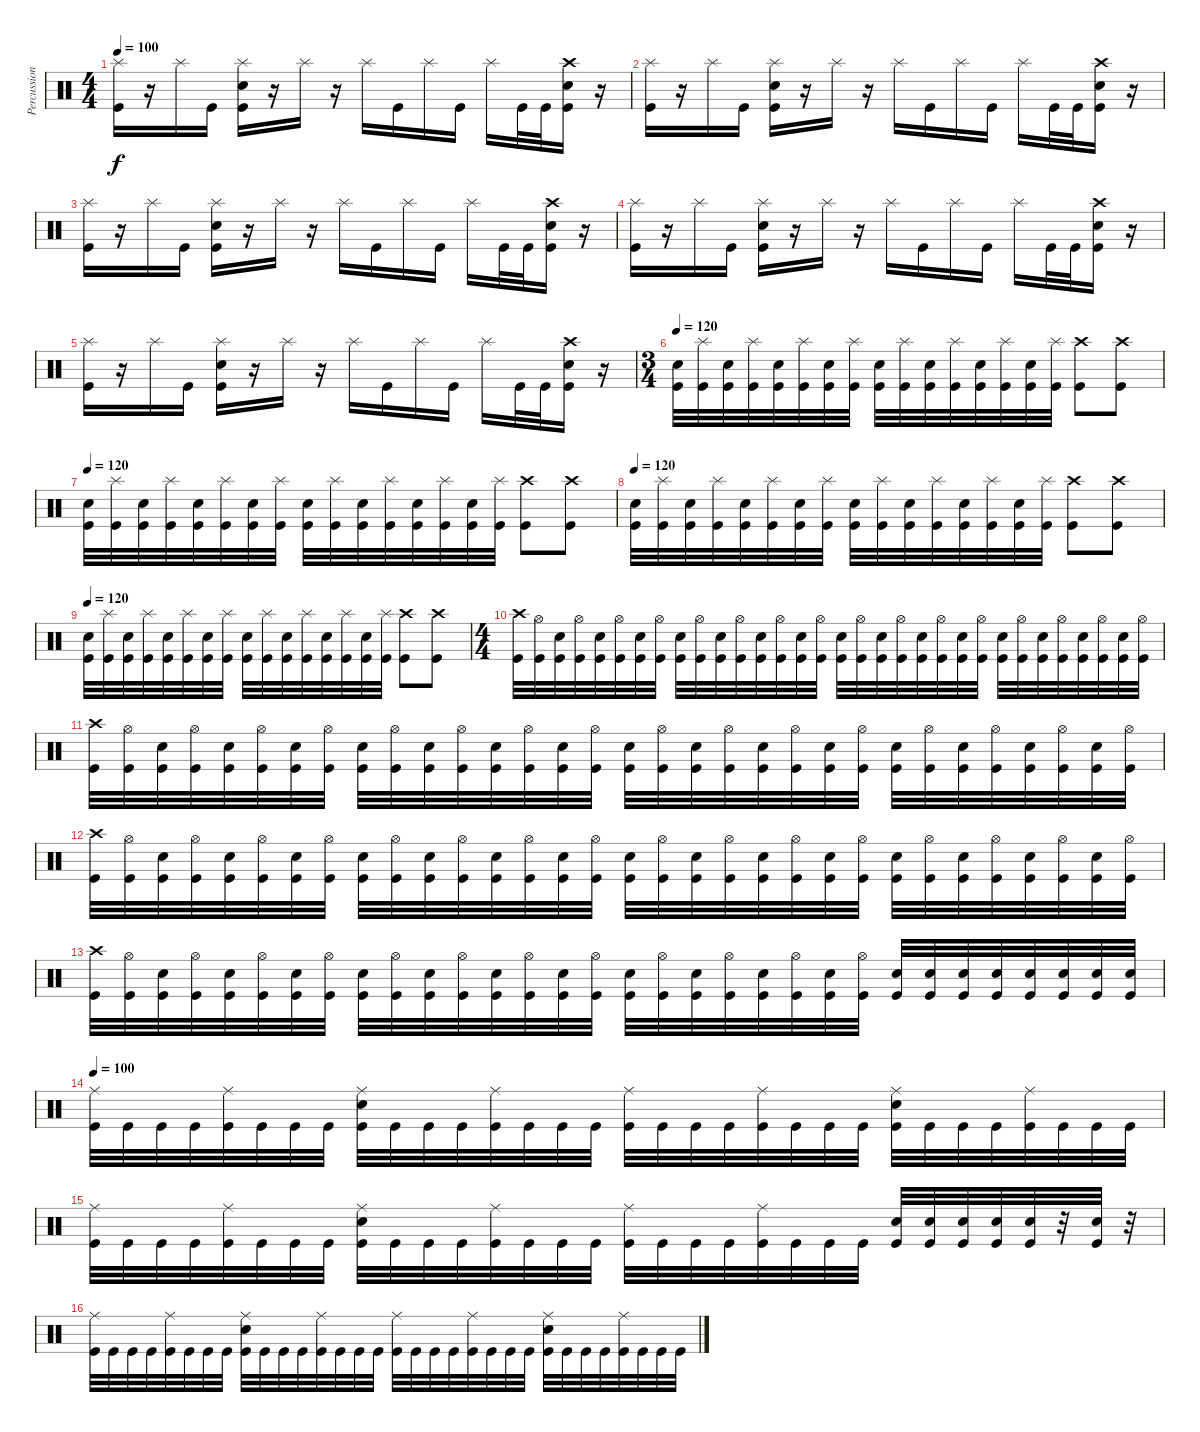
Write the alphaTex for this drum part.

\track ("Percussion" "Percussion") {instrument percussion}
\staff {score}
\articulation defaults
\ts (4 4)
\tempo 100
\clef neutral
\ks c
("Splash (hit)" "Kick (hit)").16{dy f} r.16 "Splash (hit)".16 "Kick (hit)".16 ("Splash (hit)" "Electric Snare (hit)" "Kick (hit)").16 r.16 "Splash (hit)".16 r.16 "Splash (hit)".16 "Kick (hit)".16 "Splash (hit)".16 "Kick (hit)".16 "Splash (hit)".16 "Kick (hit)".32 "Kick (hit)".32 ("Crash high (hit)" "Electric Snare (hit)" "Kick (hit)").16 r.16 |
("Splash (hit)" "Kick (hit)").16 r.16 "Splash (hit)".16 "Kick (hit)".16 ("Splash (hit)" "Electric Snare (hit)" "Kick (hit)").16 r.16 "Splash (hit)".16 r.16 "Splash (hit)".16 "Kick (hit)".16 "Splash (hit)".16 "Kick (hit)".16 "Splash (hit)".16 "Kick (hit)".32 "Kick (hit)".32 ("Crash high (hit)" "Electric Snare (hit)" "Kick (hit)").16 r.16 |
("Splash (hit)" "Kick (hit)").16{volume 16} r.16 "Splash (hit)".16 "Kick (hit)".16 ("Splash (hit)" "Electric Snare (hit)" "Kick (hit)").16 r.16 "Splash (hit)".16 r.16 "Splash (hit)".16 "Kick (hit)".16 "Splash (hit)".16 "Kick (hit)".16 "Splash (hit)".16 "Kick (hit)".32 "Kick (hit)".32 ("Crash high (hit)" "Electric Snare (hit)" "Kick (hit)").16 r.16 |
("Splash (hit)" "Kick (hit)").16{volume 16} r.16 "Splash (hit)".16 "Kick (hit)".16 ("Splash (hit)" "Electric Snare (hit)" "Kick (hit)").16 r.16 "Splash (hit)".16 r.16 "Splash (hit)".16 "Kick (hit)".16 "Splash (hit)".16 "Kick (hit)".16 "Splash (hit)".16 "Kick (hit)".32 "Kick (hit)".32 ("Crash high (hit)" "Electric Snare (hit)" "Kick (hit)").16 r.16 |
("Splash (hit)" "Kick (hit)").16{volume 16} r.16 "Splash (hit)".16 "Kick (hit)".16 ("Splash (hit)" "Electric Snare (hit)" "Kick (hit)").16 r.16 "Splash (hit)".16 r.16 "Splash (hit)".16 "Kick (hit)".16 "Splash (hit)".16 "Kick (hit)".16 "Splash (hit)".16 "Kick (hit)".32 "Kick (hit)".32 ("Crash high (hit)" "Electric Snare (hit)" "Kick (hit)").16 r.16 |
\ts (3 4)
\tempo 120
("Electric Snare (hit)" "Kick (hit)").32 ("Splash (hit)" "Kick (hit)").32 ("Electric Snare (hit)" "Kick (hit)").32 ("Splash (hit)" "Kick (hit)").32 ("Electric Snare (hit)" "Kick (hit)").32 ("Splash (hit)" "Kick (hit)").32 ("Electric Snare (hit)" "Kick (hit)").32 ("Splash (hit)" "Kick (hit)").32 ("Electric Snare (hit)" "Kick (hit)").32 ("Splash (hit)" "Kick (hit)").32 ("Electric Snare (hit)" "Kick (hit)").32 ("Splash (hit)" "Kick (hit)").32 ("Electric Snare (hit)" "Kick (hit)").32 ("Splash (hit)" "Kick (hit)").32 ("Electric Snare (hit)" "Kick (hit)").32 ("Splash (hit)" "Kick (hit)").32 ("Crash high (hit)" "Kick (hit)").8 ("Crash high (hit)" "Kick (hit)").8 |
\tempo 120
("Electric Snare (hit)" "Kick (hit)").32 ("Splash (hit)" "Kick (hit)").32 ("Electric Snare (hit)" "Kick (hit)").32 ("Splash (hit)" "Kick (hit)").32 ("Electric Snare (hit)" "Kick (hit)").32 ("Splash (hit)" "Kick (hit)").32 ("Electric Snare (hit)" "Kick (hit)").32 ("Splash (hit)" "Kick (hit)").32 ("Electric Snare (hit)" "Kick (hit)").32 ("Splash (hit)" "Kick (hit)").32 ("Electric Snare (hit)" "Kick (hit)").32 ("Splash (hit)" "Kick (hit)").32 ("Electric Snare (hit)" "Kick (hit)").32 ("Splash (hit)" "Kick (hit)").32 ("Electric Snare (hit)" "Kick (hit)").32 ("Splash (hit)" "Kick (hit)").32 ("Crash high (hit)" "Kick (hit)").8 ("Crash high (hit)" "Kick (hit)").8 |
\tempo 120
("Electric Snare (hit)" "Kick (hit)").32 ("Splash (hit)" "Kick (hit)").32 ("Electric Snare (hit)" "Kick (hit)").32 ("Splash (hit)" "Kick (hit)").32 ("Electric Snare (hit)" "Kick (hit)").32 ("Splash (hit)" "Kick (hit)").32 ("Electric Snare (hit)" "Kick (hit)").32 ("Splash (hit)" "Kick (hit)").32 ("Electric Snare (hit)" "Kick (hit)").32 ("Splash (hit)" "Kick (hit)").32 ("Electric Snare (hit)" "Kick (hit)").32 ("Splash (hit)" "Kick (hit)").32 ("Electric Snare (hit)" "Kick (hit)").32 ("Splash (hit)" "Kick (hit)").32 ("Electric Snare (hit)" "Kick (hit)").32 ("Splash (hit)" "Kick (hit)").32 ("Crash high (hit)" "Kick (hit)").8 ("Crash high (hit)" "Kick (hit)").8 |
\tempo 120
("Electric Snare (hit)" "Kick (hit)").32 ("Splash (hit)" "Kick (hit)").32 ("Electric Snare (hit)" "Kick (hit)").32 ("Splash (hit)" "Kick (hit)").32 ("Electric Snare (hit)" "Kick (hit)").32 ("Splash (hit)" "Kick (hit)").32 ("Electric Snare (hit)" "Kick (hit)").32 ("Splash (hit)" "Kick (hit)").32 ("Electric Snare (hit)" "Kick (hit)").32 ("Splash (hit)" "Kick (hit)").32 ("Electric Snare (hit)" "Kick (hit)").32 ("Splash (hit)" "Kick (hit)").32 ("Electric Snare (hit)" "Kick (hit)").32 ("Splash (hit)" "Kick (hit)").32 ("Electric Snare (hit)" "Kick (hit)").32 ("Splash (hit)" "Kick (hit)").32 ("Crash high (hit)" "Kick (hit)").8 ("Crash high (hit)" "Kick (hit)").8 |
\ts (4 4)
("Crash high (hit)" "Kick (hit)").32 ("Hi-Hat (open)" "Kick (hit)").32 ("Electric Snare (hit)" "Kick (hit)").32 ("Hi-Hat (open)" "Kick (hit)").32 ("Electric Snare (hit)" "Kick (hit)").32 ("Hi-Hat (open)" "Kick (hit)").32 ("Electric Snare (hit)" "Kick (hit)").32 ("Hi-Hat (open)" "Kick (hit)").32 ("Electric Snare (hit)" "Kick (hit)").32 ("Hi-Hat (open)" "Kick (hit)").32 ("Electric Snare (hit)" "Kick (hit)").32 ("Hi-Hat (open)" "Kick (hit)").32 ("Electric Snare (hit)" "Kick (hit)").32 ("Hi-Hat (open)" "Kick (hit)").32 ("Electric Snare (hit)" "Kick (hit)").32 ("Hi-Hat (open)" "Kick (hit)").32 ("Electric Snare (hit)" "Kick (hit)").32 ("Hi-Hat (open)" "Kick (hit)").32 ("Electric Snare (hit)" "Kick (hit)").32 ("Hi-Hat (open)" "Kick (hit)").32 ("Electric Snare (hit)" "Kick (hit)").32 ("Hi-Hat (open)" "Kick (hit)").32 ("Electric Snare (hit)" "Kick (hit)").32 ("Hi-Hat (open)" "Kick (hit)").32 ("Electric Snare (hit)" "Kick (hit)").32 ("Hi-Hat (open)" "Kick (hit)").32 ("Electric Snare (hit)" "Kick (hit)").32 ("Hi-Hat (open)" "Kick (hit)").32 ("Electric Snare (hit)" "Kick (hit)").32 ("Hi-Hat (open)" "Kick (hit)").32 ("Electric Snare (hit)" "Kick (hit)").32 ("Hi-Hat (open)" "Kick (hit)").32 |
("Crash high (hit)" "Kick (hit)").32 ("Hi-Hat (open)" "Kick (hit)").32 ("Electric Snare (hit)" "Kick (hit)").32 ("Hi-Hat (open)" "Kick (hit)").32 ("Electric Snare (hit)" "Kick (hit)").32 ("Hi-Hat (open)" "Kick (hit)").32 ("Electric Snare (hit)" "Kick (hit)").32 ("Hi-Hat (open)" "Kick (hit)").32 ("Electric Snare (hit)" "Kick (hit)").32 ("Hi-Hat (open)" "Kick (hit)").32 ("Electric Snare (hit)" "Kick (hit)").32 ("Hi-Hat (open)" "Kick (hit)").32 ("Electric Snare (hit)" "Kick (hit)").32 ("Hi-Hat (open)" "Kick (hit)").32 ("Electric Snare (hit)" "Kick (hit)").32 ("Hi-Hat (open)" "Kick (hit)").32 ("Electric Snare (hit)" "Kick (hit)").32 ("Hi-Hat (open)" "Kick (hit)").32 ("Electric Snare (hit)" "Kick (hit)").32 ("Hi-Hat (open)" "Kick (hit)").32 ("Electric Snare (hit)" "Kick (hit)").32 ("Hi-Hat (open)" "Kick (hit)").32 ("Electric Snare (hit)" "Kick (hit)").32 ("Hi-Hat (open)" "Kick (hit)").32 ("Electric Snare (hit)" "Kick (hit)").32 ("Hi-Hat (open)" "Kick (hit)").32 ("Electric Snare (hit)" "Kick (hit)").32 ("Hi-Hat (open)" "Kick (hit)").32 ("Electric Snare (hit)" "Kick (hit)").32 ("Hi-Hat (open)" "Kick (hit)").32 ("Electric Snare (hit)" "Kick (hit)").32 ("Hi-Hat (open)" "Kick (hit)").32 |
("Crash high (hit)" "Kick (hit)").32 ("Hi-Hat (open)" "Kick (hit)").32 ("Electric Snare (hit)" "Kick (hit)").32 ("Hi-Hat (open)" "Kick (hit)").32 ("Electric Snare (hit)" "Kick (hit)").32 ("Hi-Hat (open)" "Kick (hit)").32 ("Electric Snare (hit)" "Kick (hit)").32 ("Hi-Hat (open)" "Kick (hit)").32 ("Electric Snare (hit)" "Kick (hit)").32 ("Hi-Hat (open)" "Kick (hit)").32 ("Electric Snare (hit)" "Kick (hit)").32 ("Hi-Hat (open)" "Kick (hit)").32 ("Electric Snare (hit)" "Kick (hit)").32 ("Hi-Hat (open)" "Kick (hit)").32 ("Electric Snare (hit)" "Kick (hit)").32 ("Hi-Hat (open)" "Kick (hit)").32 ("Electric Snare (hit)" "Kick (hit)").32 ("Hi-Hat (open)" "Kick (hit)").32 ("Electric Snare (hit)" "Kick (hit)").32 ("Hi-Hat (open)" "Kick (hit)").32 ("Electric Snare (hit)" "Kick (hit)").32 ("Hi-Hat (open)" "Kick (hit)").32 ("Electric Snare (hit)" "Kick (hit)").32 ("Hi-Hat (open)" "Kick (hit)").32 ("Electric Snare (hit)" "Kick (hit)").32 ("Hi-Hat (open)" "Kick (hit)").32 ("Electric Snare (hit)" "Kick (hit)").32 ("Hi-Hat (open)" "Kick (hit)").32 ("Electric Snare (hit)" "Kick (hit)").32 ("Hi-Hat (open)" "Kick (hit)").32 ("Electric Snare (hit)" "Kick (hit)").32 ("Hi-Hat (open)" "Kick (hit)").32 |
("Crash high (hit)" "Kick (hit)").32 ("Hi-Hat (open)" "Kick (hit)").32 ("Electric Snare (hit)" "Kick (hit)").32 ("Hi-Hat (open)" "Kick (hit)").32 ("Electric Snare (hit)" "Kick (hit)").32 ("Hi-Hat (open)" "Kick (hit)").32 ("Electric Snare (hit)" "Kick (hit)").32 ("Hi-Hat (open)" "Kick (hit)").32 ("Electric Snare (hit)" "Kick (hit)").32 ("Hi-Hat (open)" "Kick (hit)").32 ("Electric Snare (hit)" "Kick (hit)").32 ("Hi-Hat (open)" "Kick (hit)").32 ("Electric Snare (hit)" "Kick (hit)").32 ("Hi-Hat (open)" "Kick (hit)").32 ("Electric Snare (hit)" "Kick (hit)").32 ("Hi-Hat (open)" "Kick (hit)").32 ("Electric Snare (hit)" "Kick (hit)").32 ("Hi-Hat (open)" "Kick (hit)").32 ("Electric Snare (hit)" "Kick (hit)").32 ("Hi-Hat (open)" "Kick (hit)").32 ("Electric Snare (hit)" "Kick (hit)").32 ("Hi-Hat (open)" "Kick (hit)").32 ("Electric Snare (hit)" "Kick (hit)").32 ("Hi-Hat (open)" "Kick (hit)").32 ("Electric Snare (hit)" "Kick (hit)").32 ("Electric Snare (hit)" "Kick (hit)").32 ("Electric Snare (hit)" "Kick (hit)").32 ("Electric Snare (hit)" "Kick (hit)").32 ("Electric Snare (hit)" "Kick (hit)").32 ("Electric Snare (hit)" "Kick (hit)").32 ("Electric Snare (hit)" "Kick (hit)").32 ("Electric Snare (hit)" "Kick (hit)").32 |
\tempo 100
("Ride (middle)" "Kick (hit)").32 "Kick (hit)".32 "Kick (hit)".32 "Kick (hit)".32 ("Ride (middle)" "Kick (hit)").32 "Kick (hit)".32 "Kick (hit)".32 "Kick (hit)".32 ("Ride (middle)" "Electric Snare (hit)" "Kick (hit)").32 "Kick (hit)".32 "Kick (hit)".32 "Kick (hit)".32 ("Ride (middle)" "Kick (hit)").32 "Kick (hit)".32 "Kick (hit)".32 "Kick (hit)".32 ("Ride (middle)" "Kick (hit)").32 "Kick (hit)".32 "Kick (hit)".32 "Kick (hit)".32 ("Ride (middle)" "Kick (hit)").32 "Kick (hit)".32 "Kick (hit)".32 "Kick (hit)".32 ("Ride (middle)" "Electric Snare (hit)" "Kick (hit)").32 "Kick (hit)".32 "Kick (hit)".32 "Kick (hit)".32 ("Ride (middle)" "Kick (hit)").32 "Kick (hit)".32 "Kick (hit)".32 "Kick (hit)".32 |
("Ride (middle)" "Kick (hit)").32 "Kick (hit)".32 "Kick (hit)".32 "Kick (hit)".32 ("Ride (middle)" "Kick (hit)").32 "Kick (hit)".32 "Kick (hit)".32 "Kick (hit)".32 ("Ride (middle)" "Electric Snare (hit)" "Kick (hit)").32 "Kick (hit)".32 "Kick (hit)".32 "Kick (hit)".32 ("Ride (middle)" "Kick (hit)").32 "Kick (hit)".32 "Kick (hit)".32 "Kick (hit)".32 ("Ride (middle)" "Kick (hit)").32 "Kick (hit)".32 "Kick (hit)".32 "Kick (hit)".32 ("Ride (middle)" "Kick (hit)").32 "Kick (hit)".32 "Kick (hit)".32 "Kick (hit)".32 ("Electric Snare (hit)" "Kick (hit)").32 ("Electric Snare (hit)" "Kick (hit)").32 ("Electric Snare (hit)" "Kick (hit)").32 ("Electric Snare (hit)" "Kick (hit)").32 ("Electric Snare (hit)" "Kick (hit)").32 r.32 ("Electric Snare (hit)" "Kick (hit)").32 r.32 |
("Ride (middle)" "Kick (hit)").32 "Kick (hit)".32 "Kick (hit)".32 "Kick (hit)".32 ("Ride (middle)" "Kick (hit)").32 "Kick (hit)".32 "Kick (hit)".32 "Kick (hit)".32 ("Ride (middle)" "Electric Snare (hit)" "Kick (hit)").32 "Kick (hit)".32 "Kick (hit)".32 "Kick (hit)".32 ("Ride (middle)" "Kick (hit)").32 "Kick (hit)".32 "Kick (hit)".32 "Kick (hit)".32 ("Ride (middle)" "Kick (hit)").32 "Kick (hit)".32 "Kick (hit)".32 "Kick (hit)".32 ("Ride (middle)" "Kick (hit)").32 "Kick (hit)".32 "Kick (hit)".32 "Kick (hit)".32 ("Ride (middle)" "Electric Snare (hit)" "Kick (hit)").32 "Kick (hit)".32 "Kick (hit)".32 "Kick (hit)".32 ("Ride (middle)" "Kick (hit)").32 "Kick (hit)".32 "Kick (hit)".32 "Kick (hit)".32
